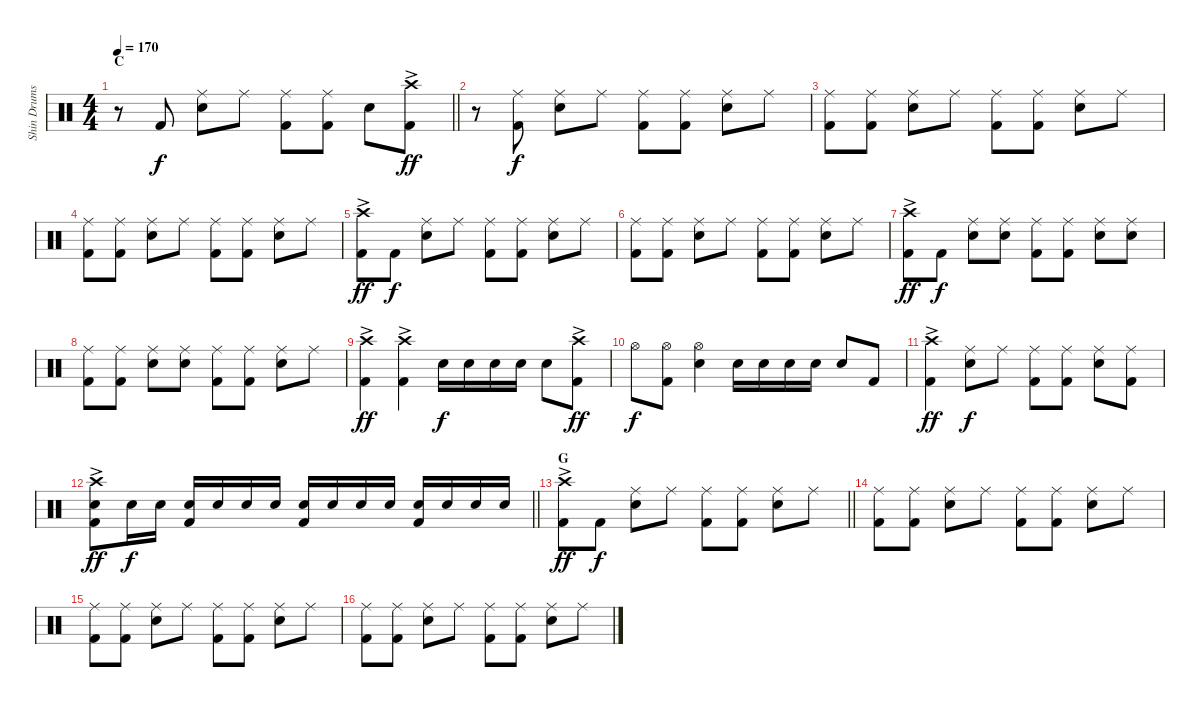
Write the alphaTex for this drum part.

\track ("Shin Drums" "Shin Drums") {instrument percussion}
\staff {score}
\articulation defaults
\ts (4 4)
\section ("" "C")
\tempo 170
\clef neutral
\barLineRight lightlight
\ks c
r.8{dy ff} "Kick (hit) 2".8{dy f} ("Ride (middle)" "Snare (hit) 2").8 "Ride (middle)".8 ("Ride (middle)" "Kick (hit) 2").8 ("Ride (middle)" "Kick (hit) 2").8 "Snare (hit) 2".8 ("Crash high (hit)"{ac} "Kick (hit) 2").8{dy ff} |
\section ("" "")
r.8 ("Ride (middle)" "Kick (hit) 2").8{dy f} ("Ride (middle)" "Snare (hit) 2").8 "Ride (middle)".8 ("Ride (middle)" "Kick (hit) 2").8 ("Ride (middle)" "Kick (hit) 2").8 ("Ride (middle)" "Snare (hit) 2").8 "Ride (middle)".8 |
("Ride (middle)" "Kick (hit) 2").8 ("Ride (middle)" "Kick (hit) 2").8 ("Ride (middle)" "Snare (hit) 2").8 "Ride (middle)".8 ("Ride (middle)" "Kick (hit) 2").8 ("Ride (middle)" "Kick (hit) 2").8 ("Ride (middle)" "Snare (hit) 2").8 "Ride (middle)".8 |
("Ride (middle)" "Kick (hit) 2").8 ("Ride (middle)" "Kick (hit) 2").8 ("Ride (middle)" "Snare (hit) 2").8 "Ride (middle)".8 ("Ride (middle)" "Kick (hit) 2").8 ("Ride (middle)" "Kick (hit) 2").8 ("Ride (middle)" "Snare (hit) 2").8 "Ride (middle)".8 |
("Crash high (hit)"{ac} "Kick (hit) 2").8{dy ff} "Kick (hit) 2".8{dy f} ("Ride (middle)" "Snare (hit) 2").8 "Ride (middle)".8 ("Ride (middle)" "Kick (hit) 2").8 ("Ride (middle)" "Kick (hit) 2").8 ("Ride (middle)" "Snare (hit) 2").8 "Ride (middle)".8 |
("Ride (middle)" "Kick (hit) 2").8 ("Ride (middle)" "Kick (hit) 2").8 ("Ride (middle)" "Snare (hit) 2").8 "Ride (middle)".8 ("Ride (middle)" "Kick (hit) 2").8 ("Ride (middle)" "Kick (hit) 2").8 ("Ride (middle)" "Snare (hit) 2").8 "Ride (middle)".8 |
("Crash high (hit)"{ac} "Kick (hit) 2").8{dy ff} "Kick (hit) 2".8{dy f} ("Ride (middle)" "Snare (hit) 2").8 ("Ride (middle)" "Snare (hit) 2").8 ("Ride (middle)" "Kick (hit) 2").8 ("Ride (middle)" "Kick (hit) 2").8 ("Ride (middle)" "Snare (hit) 2").8 ("Ride (middle)" "Snare (hit) 2").8 |
("Ride (middle)" "Kick (hit) 2").8 ("Ride (middle)" "Kick (hit) 2").8 ("Ride (middle)" "Snare (hit) 2").8 ("Ride (middle)" "Snare (hit) 2").8 ("Ride (middle)" "Kick (hit) 2").8 ("Ride (middle)" "Kick (hit) 2").8 ("Ride (middle)" "Snare (hit) 2").8 "Ride (middle)".8 |
("Crash high (hit)"{ac} "Kick (hit) 2").4{dy ff} ("Crash high (hit)"{ac} "Kick (hit) 2").4 "Snare (hit) 2".16{dy f} "Snare (hit) 2".16 "Snare (hit) 2".16 "Snare (hit) 2".16 "Snare (hit) 2".8 ("Crash high (hit)"{ac} "Kick (hit) 2").8{dy ff} |
"Hi-Hat (open)".8{dy f} ("Hi-Hat (open)" "Kick (hit) 2").8 ("Hi-Hat (open)" "Snare (hit) 2").4 "Snare (hit) 2".16 "Snare (hit) 2".16 "Snare (hit) 2".16 "Snare (hit) 2".16 "Snare (hit) 2".8 "Kick (hit) 2".8 |
("Crash high (hit)"{ac} "Kick (hit) 2").4{dy ff} ("Ride (middle)" "Snare (hit) 2").8{dy f} "Ride (middle)".8 ("Ride (middle)" "Kick (hit) 2").8 ("Ride (middle)" "Kick (hit) 2").8 ("Ride (middle)" "Snare (hit) 2").8 ("Ride (middle)" "Kick (hit) 2").8 |
\barLineRight lightlight
("Crash high (hit)"{ac} "Snare (hit) 2" "Kick (hit) 2").8{dy ff} "Snare (hit) 2".16{dy f} "Snare (hit) 2".16 ("Snare (hit) 2" "Kick (hit) 2").16 "Snare (hit) 2".16 "Snare (hit) 2".16 "Snare (hit) 2".16 ("Snare (hit) 2" "Kick (hit) 2").16 "Snare (hit) 2".16 "Snare (hit) 2".16 "Snare (hit) 2".16 ("Snare (hit) 2" "Kick (hit) 2").16 "Snare (hit) 2".16 "Snare (hit) 2".16 "Snare (hit) 2".16 |
\section ("" "G")
\barLineRight lightlight
("Crash high (hit)"{ac} "Kick (hit) 2").8{dy ff} "Kick (hit) 2".8{dy f} ("Ride (middle)" "Snare (hit) 2").8 "Ride (middle)".8 ("Ride (middle)" "Kick (hit) 2").8 ("Ride (middle)" "Kick (hit) 2").8 ("Ride (middle)" "Snare (hit) 2").8 "Ride (middle)".8 |
\section ("" "")
("Ride (middle)" "Kick (hit) 2").8 ("Ride (middle)" "Kick (hit) 2").8 ("Ride (middle)" "Snare (hit) 2").8 "Ride (middle)".8 ("Ride (middle)" "Kick (hit) 2").8 ("Ride (middle)" "Kick (hit) 2").8 ("Ride (middle)" "Snare (hit) 2").8 "Ride (middle)".8 |
("Ride (middle)" "Kick (hit) 2").8 ("Ride (middle)" "Kick (hit) 2").8 ("Ride (middle)" "Snare (hit) 2").8 "Ride (middle)".8 ("Ride (middle)" "Kick (hit) 2").8 ("Ride (middle)" "Kick (hit) 2").8 ("Ride (middle)" "Snare (hit) 2").8 "Ride (middle)".8 |
("Ride (middle)" "Kick (hit) 2").8 ("Ride (middle)" "Kick (hit) 2").8 ("Ride (middle)" "Snare (hit) 2").8 "Ride (middle)".8 ("Ride (middle)" "Kick (hit) 2").8 ("Ride (middle)" "Kick (hit) 2").8 ("Ride (middle)" "Snare (hit) 2").8 "Ride (middle)".8
